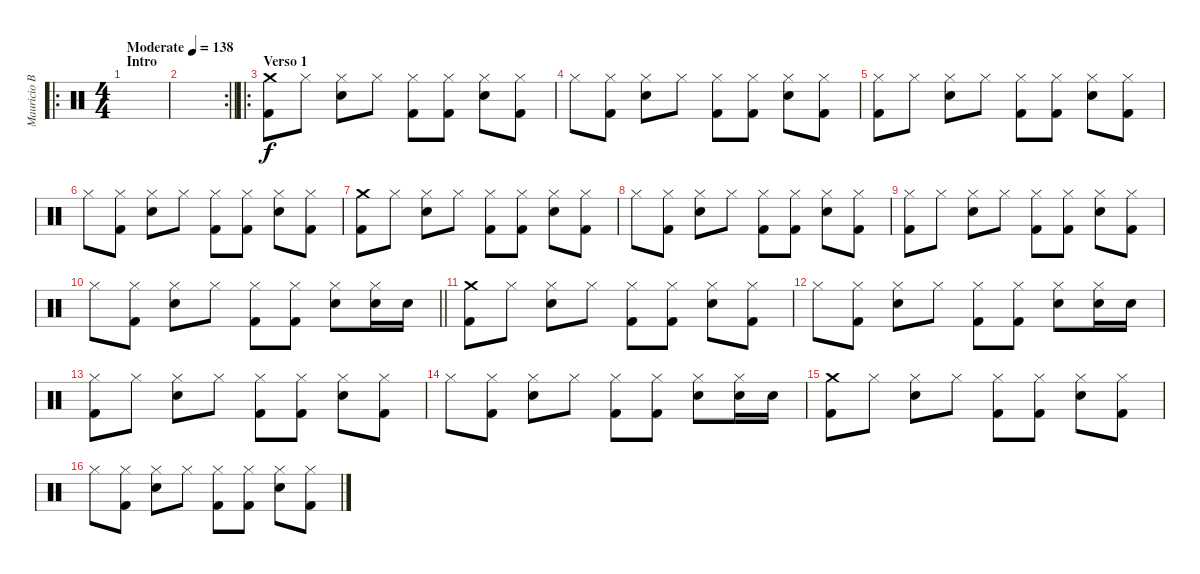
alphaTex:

\track ("Mauricio Basualto" "Mauricio B") {instrument percussion}
\staff {score}
\articulation defaults
\ro
\ts (4 4)
\section ("" "Intro")
\tempo (138 "Moderate")
\clef neutral
\ks c
|
\rc 2
\barLineRight lightlight
|
\ro
\section ("" "Verso 1")
("Crash medium (hit)" "Kick (hit) 2").8 "Hi-Hat (closed)".8 ("Hi-Hat (closed)" "Snare (hit) 2").8 "Hi-Hat (closed)".8 ("Hi-Hat (closed)" "Kick (hit) 2").8 ("Hi-Hat (closed)" "Kick (hit) 2").8 ("Hi-Hat (closed)" "Snare (hit) 2").8 ("Hi-Hat (closed)" "Kick (hit) 2").8 |
"Hi-Hat (closed)".8 ("Hi-Hat (closed)" "Kick (hit) 2").8 ("Hi-Hat (closed)" "Snare (hit) 2").8 "Hi-Hat (closed)".8 ("Hi-Hat (closed)" "Kick (hit) 2").8 ("Hi-Hat (closed)" "Kick (hit) 2").8 ("Hi-Hat (closed)" "Snare (hit) 2").8 ("Hi-Hat (closed)" "Kick (hit) 2").8 |
("Hi-Hat (closed)" "Kick (hit) 2").8 "Hi-Hat (closed)".8 ("Hi-Hat (closed)" "Snare (hit) 2").8 "Hi-Hat (closed)".8 ("Hi-Hat (closed)" "Kick (hit) 2").8 ("Hi-Hat (closed)" "Kick (hit) 2").8 ("Hi-Hat (closed)" "Snare (hit) 2").8 ("Hi-Hat (closed)" "Kick (hit) 2").8 |
"Hi-Hat (closed)".8 ("Hi-Hat (closed)" "Kick (hit) 2").8 ("Hi-Hat (closed)" "Snare (hit) 2").8 "Hi-Hat (closed)".8 ("Hi-Hat (closed)" "Kick (hit) 2").8 ("Hi-Hat (closed)" "Kick (hit) 2").8 ("Hi-Hat (closed)" "Snare (hit) 2").8 ("Hi-Hat (closed)" "Kick (hit) 2").8 |
("Crash medium (hit)" "Kick (hit) 2").8 "Hi-Hat (closed)".8 ("Hi-Hat (closed)" "Snare (hit) 2").8 "Hi-Hat (closed)".8 ("Hi-Hat (closed)" "Kick (hit) 2").8 ("Hi-Hat (closed)" "Kick (hit) 2").8 ("Hi-Hat (closed)" "Snare (hit) 2").8 ("Hi-Hat (closed)" "Kick (hit) 2").8 |
"Hi-Hat (closed)".8 ("Hi-Hat (closed)" "Kick (hit) 2").8 ("Hi-Hat (closed)" "Snare (hit) 2").8 "Hi-Hat (closed)".8 ("Hi-Hat (closed)" "Kick (hit) 2").8 ("Hi-Hat (closed)" "Kick (hit) 2").8 ("Hi-Hat (closed)" "Snare (hit) 2").8 ("Hi-Hat (closed)" "Kick (hit) 2").8 |
("Hi-Hat (closed)" "Kick (hit) 2").8 "Hi-Hat (closed)".8 ("Hi-Hat (closed)" "Snare (hit) 2").8 "Hi-Hat (closed)".8 ("Hi-Hat (closed)" "Kick (hit) 2").8 ("Hi-Hat (closed)" "Kick (hit) 2").8 ("Hi-Hat (closed)" "Snare (hit) 2").8 ("Hi-Hat (closed)" "Kick (hit) 2").8 |
\barLineRight lightlight "Hi-Hat (closed)".8
("Hi-Hat (closed)" "Kick (hit) 2").8 ("Hi-Hat (closed)" "Snare (hit) 2").8 "Hi-Hat (closed)".8 ("Hi-Hat (closed)" "Kick (hit) 2").8 ("Hi-Hat (closed)" "Kick (hit) 2").8 ("Hi-Hat (closed)" "Snare (hit) 2").8 ("Hi-Hat (closed)" "Snare (hit) 2").16 "Snare (hit) 2".16 |
("Crash medium (hit)" "Kick (hit) 2").8 "Hi-Hat (closed)".8 ("Hi-Hat (closed)" "Snare (hit) 2").8 "Hi-Hat (closed)".8 ("Hi-Hat (closed)" "Kick (hit) 2").8 ("Hi-Hat (closed)" "Kick (hit) 2").8 ("Hi-Hat (closed)" "Snare (hit) 2").8 ("Hi-Hat (closed)" "Kick (hit) 2").8 |
"Hi-Hat (closed)".8 ("Hi-Hat (closed)" "Kick (hit) 2").8 ("Hi-Hat (closed)" "Snare (hit) 2").8 "Hi-Hat (closed)".8 ("Hi-Hat (closed)" "Kick (hit) 2").8 ("Hi-Hat (closed)" "Kick (hit) 2").8 ("Hi-Hat (closed)" "Snare (hit) 2").8 ("Hi-Hat (closed)" "Snare (hit) 2").16 "Snare (hit) 2".16 |
("Hi-Hat (closed)" "Kick (hit) 2").8 "Hi-Hat (closed)".8 ("Hi-Hat (closed)" "Snare (hit) 2").8 "Hi-Hat (closed)".8 ("Hi-Hat (closed)" "Kick (hit) 2").8 ("Hi-Hat (closed)" "Kick (hit) 2").8 ("Hi-Hat (closed)" "Snare (hit) 2").8 ("Hi-Hat (closed)" "Kick (hit) 2").8 |
"Hi-Hat (closed)".8 ("Hi-Hat (closed)" "Kick (hit) 2").8 ("Hi-Hat (closed)" "Snare (hit) 2").8 "Hi-Hat (closed)".8 ("Hi-Hat (closed)" "Kick (hit) 2").8 ("Hi-Hat (closed)" "Kick (hit) 2").8 ("Hi-Hat (closed)" "Snare (hit) 2").8 ("Hi-Hat (closed)" "Snare (hit) 2").16 "Snare (hit) 2".16 |
("Crash medium (hit)" "Kick (hit) 2").8 "Hi-Hat (closed)".8 ("Hi-Hat (closed)" "Snare (hit) 2").8 "Hi-Hat (closed)".8 ("Hi-Hat (closed)" "Kick (hit) 2").8 ("Hi-Hat (closed)" "Kick (hit) 2").8 ("Hi-Hat (closed)" "Snare (hit) 2").8 ("Hi-Hat (closed)" "Kick (hit) 2").8 |
"Hi-Hat (closed)".8 ("Hi-Hat (closed)" "Kick (hit) 2").8 ("Hi-Hat (closed)" "Snare (hit) 2").8 "Hi-Hat (closed)".8 ("Hi-Hat (closed)" "Kick (hit) 2").8 ("Hi-Hat (closed)" "Kick (hit) 2").8 ("Hi-Hat (closed)" "Snare (hit) 2").8 ("Hi-Hat (closed)" "Kick (hit) 2").8
